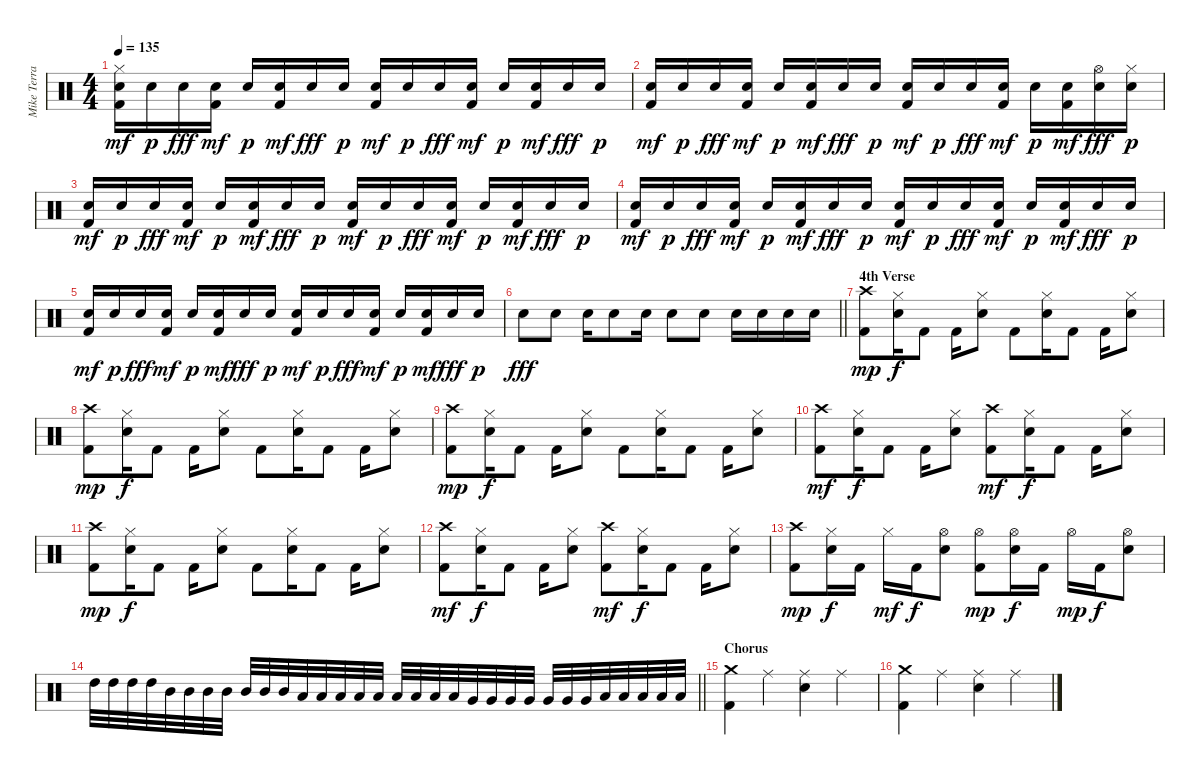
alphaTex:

\track ("Mike Terrana" "Mike Terra") {instrument percussion}
\staff {score}
\articulation defaults
\ts (4 4)
\tempo 135
\clef neutral
\ks c
("Hi-Hat (closed)" "Snare (hit) 2" "Kick (hit) 2").16{dy mf} "Snare (hit) 2".16{dy p} "Snare (hit) 2".16{dy fff} ("Snare (hit) 2" "Kick (hit) 2").16{dy mf} "Snare (hit) 2".16{dy p} ("Snare (hit) 2" "Kick (hit) 2").16{dy mf} "Snare (hit) 2".16{dy fff} "Snare (hit) 2".16{dy p} ("Snare (hit) 2" "Kick (hit) 2").16{dy mf} "Snare (hit) 2".16{dy p} "Snare (hit) 2".16{dy fff} ("Snare (hit) 2" "Kick (hit) 2").16{dy mf} "Snare (hit) 2".16{dy p} ("Snare (hit) 2" "Kick (hit) 2").16{dy mf} "Snare (hit) 2".16{dy fff} "Snare (hit) 2".16{dy p} |
("Snare (hit) 2" "Kick (hit) 2").16{dy mf} "Snare (hit) 2".16{dy p} "Snare (hit) 2".16{dy fff} ("Snare (hit) 2" "Kick (hit) 2").16{dy mf} "Snare (hit) 2".16{dy p} ("Snare (hit) 2" "Kick (hit) 2").16{dy mf} "Snare (hit) 2".16{dy fff} "Snare (hit) 2".16{dy p} ("Snare (hit) 2" "Kick (hit) 2").16{dy mf} "Snare (hit) 2".16{dy p} "Snare (hit) 2".16{dy fff} ("Snare (hit) 2" "Kick (hit) 2").16{dy mf} "Snare (hit) 2".16{dy p} ("Snare (hit) 2" "Kick (hit) 2").16{dy mf} ("Hi-Hat (open)" "Snare (hit) 2").16{dy fff} ("Hi-Hat (closed)" "Snare (hit) 2").16{dy p} |
("Snare (hit) 2" "Kick (hit) 2").16{dy mf} "Snare (hit) 2".16{dy p} "Snare (hit) 2".16{dy fff} ("Snare (hit) 2" "Kick (hit) 2").16{dy mf} "Snare (hit) 2".16{dy p} ("Snare (hit) 2" "Kick (hit) 2").16{dy mf} "Snare (hit) 2".16{dy fff} "Snare (hit) 2".16{dy p} ("Snare (hit) 2" "Kick (hit) 2").16{dy mf} "Snare (hit) 2".16{dy p} "Snare (hit) 2".16{dy fff} ("Snare (hit) 2" "Kick (hit) 2").16{dy mf} "Snare (hit) 2".16{dy p} ("Snare (hit) 2" "Kick (hit) 2").16{dy mf} "Snare (hit) 2".16{dy fff} "Snare (hit) 2".16{dy p} |
("Snare (hit) 2" "Kick (hit) 2").16{dy mf} "Snare (hit) 2".16{dy p} "Snare (hit) 2".16{dy fff} ("Snare (hit) 2" "Kick (hit) 2").16{dy mf} "Snare (hit) 2".16{dy p} ("Snare (hit) 2" "Kick (hit) 2").16{dy mf} "Snare (hit) 2".16{dy fff} "Snare (hit) 2".16{dy p} ("Snare (hit) 2" "Kick (hit) 2").16{dy mf} "Snare (hit) 2".16{dy p} "Snare (hit) 2".16{dy fff} ("Snare (hit) 2" "Kick (hit) 2").16{dy mf} "Snare (hit) 2".16{dy p} ("Snare (hit) 2" "Kick (hit) 2").16{dy mf} "Snare (hit) 2".16{dy fff} "Snare (hit) 2".16{dy p} |
("Snare (hit) 2" "Kick (hit) 2").16{dy mf} "Snare (hit) 2".16{dy p} "Snare (hit) 2".16{dy fff} ("Snare (hit) 2" "Kick (hit) 2").16{dy mf} "Snare (hit) 2".16{dy p} ("Snare (hit) 2" "Kick (hit) 2").16{dy mf} "Snare (hit) 2".16{dy fff} "Snare (hit) 2".16{dy p} ("Snare (hit) 2" "Kick (hit) 2").16{dy mf} "Snare (hit) 2".16{dy p} "Snare (hit) 2".16{dy fff} ("Snare (hit) 2" "Kick (hit) 2").16{dy mf} "Snare (hit) 2".16{dy p} ("Snare (hit) 2" "Kick (hit) 2").16{dy mf} "Snare (hit) 2".16{dy fff} "Snare (hit) 2".16{dy p} |
\barLineRight lightlight "Snare (hit) 2".8{dy fff} "Snare (hit) 2".8 "Snare (hit) 2".16 "Snare (hit) 2".8 "Snare (hit) 2".16 "Snare (hit) 2".8 "Snare (hit) 2".8 "Snare (hit) 2".16 "Snare (hit) 2".16 "Snare (hit) 2".16 "Snare (hit) 2".16
|
\section ("" "4th Verse")
("Crash high (hit)" "Kick (hit) 2").8{dy mp} ("Hi-Hat (closed)" "Snare (hit) 2").16{dy f} "Kick (hit) 2".8 "Kick (hit) 2".16 ("Hi-Hat (closed)" "Snare (hit) 2").8 "Kick (hit) 2".8 ("Hi-Hat (closed)" "Snare (hit) 2").16 "Kick (hit) 2".8 "Kick (hit) 2".16 ("Hi-Hat (closed)" "Snare (hit) 2").8 |
("Crash high (hit)" "Kick (hit) 2").8{dy mp} ("Hi-Hat (closed)" "Snare (hit) 2").16{dy f} "Kick (hit) 2".8 "Kick (hit) 2".16 ("Hi-Hat (closed)" "Snare (hit) 2").8 "Kick (hit) 2".8 ("Hi-Hat (closed)" "Snare (hit) 2").16 "Kick (hit) 2".8 "Kick (hit) 2".16 ("Hi-Hat (closed)" "Snare (hit) 2").8 |
("Crash high (hit)" "Kick (hit) 2").8{dy mp} ("Hi-Hat (closed)" "Snare (hit) 2").16{dy f} "Kick (hit) 2".8 "Kick (hit) 2".16 ("Hi-Hat (closed)" "Snare (hit) 2").8 "Kick (hit) 2".8 ("Hi-Hat (closed)" "Snare (hit) 2").16 "Kick (hit) 2".8 "Kick (hit) 2".16 ("Hi-Hat (closed)" "Snare (hit) 2").8 |
("Crash high (hit)" "Kick (hit) 2").8{dy mf} ("Hi-Hat (closed)" "Snare (hit) 2").16{dy f} "Kick (hit) 2".8 "Kick (hit) 2".16 ("Hi-Hat (closed)" "Snare (hit) 2").8 ("Crash high (hit)" "Kick (hit) 2").8{dy mf} ("Hi-Hat (closed)" "Snare (hit) 2").16{dy f} "Kick (hit) 2".8 "Kick (hit) 2".16 ("Hi-Hat (closed)" "Snare (hit) 2").8 |
("Crash high (hit)" "Kick (hit) 2").8{dy mp} ("Hi-Hat (closed)" "Snare (hit) 2").16{dy f} "Kick (hit) 2".8 "Kick (hit) 2".16 ("Hi-Hat (closed)" "Snare (hit) 2").8 "Kick (hit) 2".8 ("Hi-Hat (closed)" "Snare (hit) 2").16 "Kick (hit) 2".8 "Kick (hit) 2".16 ("Hi-Hat (closed)" "Snare (hit) 2").8 |
("Crash high (hit)" "Kick (hit) 2").8{dy mf} ("Hi-Hat (closed)" "Snare (hit) 2").16{dy f} "Kick (hit) 2".8 "Kick (hit) 2".16 ("Hi-Hat (closed)" "Snare (hit) 2").8 ("Crash high (hit)" "Kick (hit) 2").8{dy mf} ("Hi-Hat (closed)" "Snare (hit) 2").16{dy f} "Kick (hit) 2".8 "Kick (hit) 2".16 ("Hi-Hat (closed)" "Snare (hit) 2").8 |
("Crash high (hit)" "Kick (hit) 2").8{dy mp} ("Hi-Hat (closed)" "Snare (hit) 2").16{dy f} "Kick (hit) 2".16 "Hi-Hat (closed)".16{dy mf} "Kick (hit) 2".16{dy f} ("Hi-Hat (open)" "Snare (hit) 2").8 ("Hi-Hat (open)" "Kick (hit) 2").8{dy mp} ("Hi-Hat (open)" "Snare (hit) 2").16{dy f} "Kick (hit) 2".16 "Hi-Hat (open)".16{dy mp} "Kick (hit) 2".16{dy f} ("Hi-Hat (open)" "Snare (hit) 2").8 |
\barLineRight lightlight "High Tom (hit)".32 "High Tom (hit)".32 "High Tom (hit)".32 "High Tom (hit)".32 "Mid Tom (hit)".32 "Mid Tom (hit)".32 "Mid Tom (hit)".32 "Mid Tom (hit)".32 "Mid Tom (hit)".32 "Mid Tom (hit)".32 "Mid Tom (hit)".32 "Low Tom (hit)".32 "Low Tom (hit)".32 "Low Tom (hit)".32 "Low Tom (hit)".32 "Low Tom (hit)".32 "Low Tom (hit)".32 "Low Tom (hit)".32 "Low Tom (hit)".32 "Low Tom (hit)".32 "Very Low Tom (hit)".32 "Very Low Tom (hit)".32 "Very Low Tom (hit)".32 "Very Low Tom (hit)".32 "Very Low Tom (hit)".32 "Very Low Tom (hit)".32 "Very Low Tom (hit)".32 "Low Floor Tom (hit)".32 "Low Floor Tom (hit)".32 "Low Floor Tom (hit)".32 "Low Floor Tom (hit)".32 "Low Floor Tom (hit)".32
|
\section ("" "Chorus")
("Crash medium (hit)" "Kick (hit) 2").4 "Ride (middle)".4 ("Ride (middle)" "Snare (hit) 2").4 "Ride (middle)".4 |
("Crash medium (hit)" "Kick (hit) 2").4 "Ride (middle)".4 ("Ride (middle)" "Snare (hit) 2").4 "Ride (middle)".4
